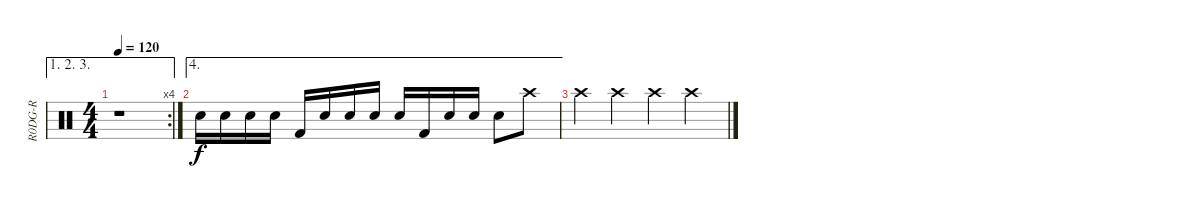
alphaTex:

\track ("R0DG-R" "R0DG-R") {instrument percussion}
\staff {score}
\articulation defaults
\ae (1 2 3)
\rc 4
\ts (4 4)
\tempo 120
\clef neutral
\ks c
r.1{dy f} |
\ae 4 "Electric Snare (hit)".16 "Electric Snare (hit)".16 "Electric Snare (hit)".16 "Electric Snare (hit)".16 "Kick (hit) 2".16 "Electric Snare (hit)".16 "Electric Snare (hit)".16 "Electric Snare (hit)".16 "Electric Snare (hit)".16 "Kick (hit) 2".16 "Electric Snare (hit)".16 "Electric Snare (hit)".16 "Electric Snare (hit)".8 "Crash high (hit)".8
|
"Crash high (hit)".4 "Crash high (hit)".4 "Crash high (hit)".4 "Crash high (hit)".4
